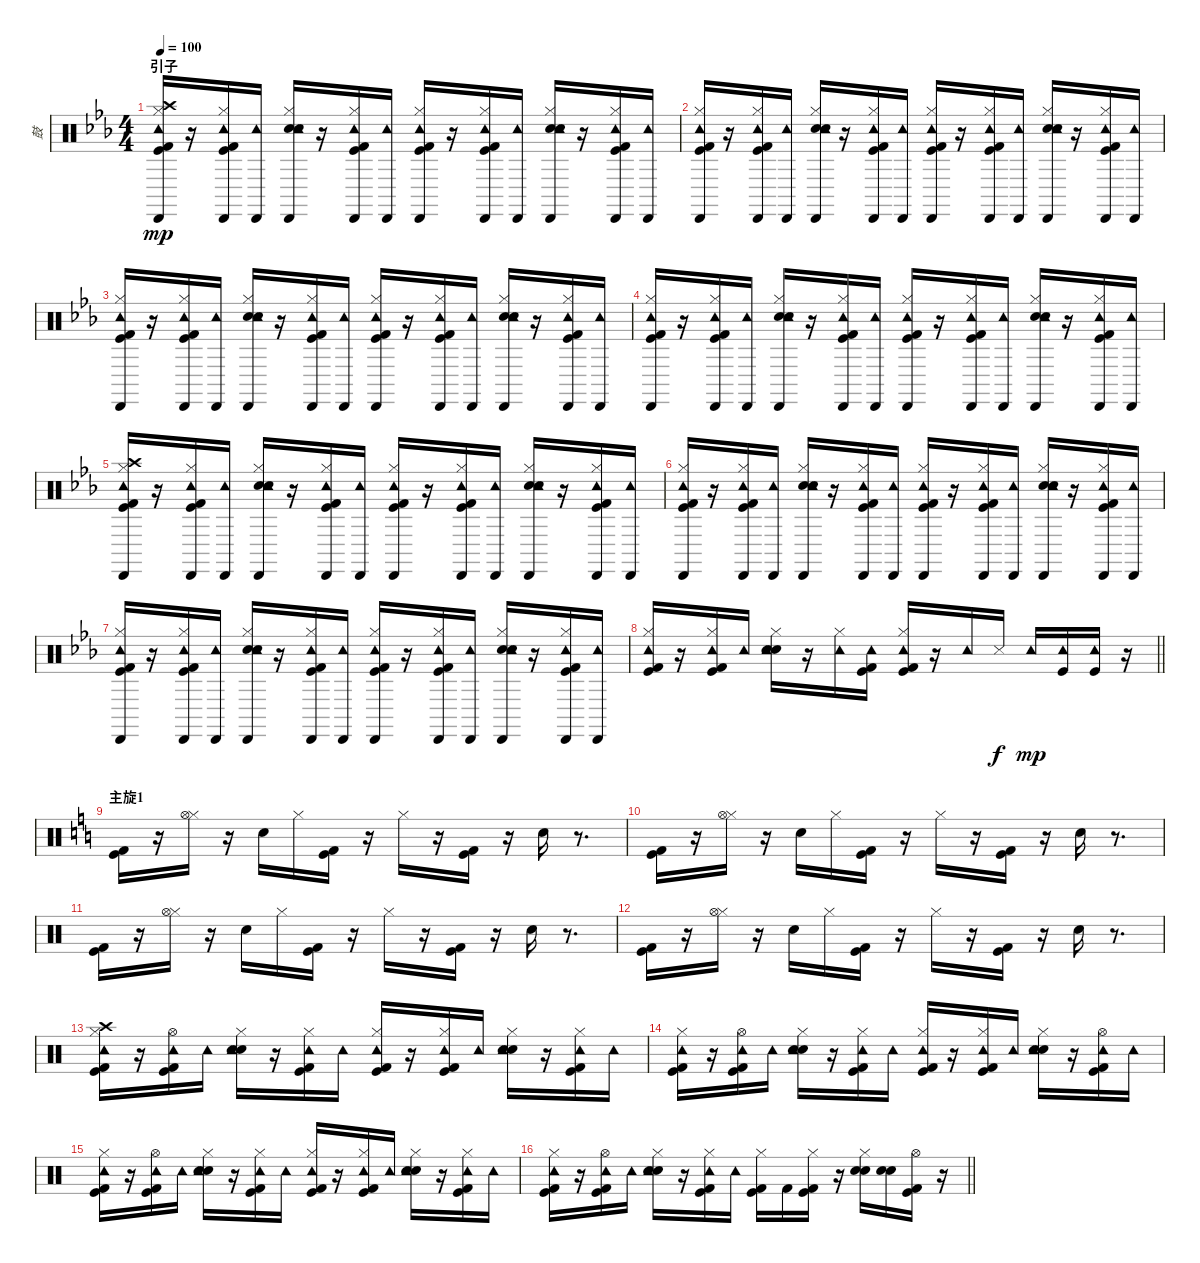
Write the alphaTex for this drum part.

\track ("鼓" "鼓") {instrument percussion}
\staff {score}
\articulation defaults
\ts (4 4)
\section ("" "引子")
\tempo 100
\clef neutral
\ks eb
("Kick (hit)" "Kick (hit) 2" "Hi-Hat (closed)" "Cabasa (hit)" "Crash high (hit)" "Tambourine (hit)").16{dy mp} r.16 ("Kick (hit)" "Kick (hit) 2" "Hi-Hat (closed)" "Cabasa (hit)" "Tambourine (hit)").16 ("Cabasa (hit)" "Tambourine (hit)").16 ("Electric Snare (hit)" "Hand Clap (hit)" "Hi-Hat (closed)" "Cabasa (hit)" "Tambourine (hit)").16 r.16 ("Kick (hit)" "Kick (hit) 2" "Cabasa (hit)" "Tambourine (hit)" "Hi-Hat (closed)").16 ("Cabasa (hit)" "Tambourine (hit)").16 ("Kick (hit)" "Kick (hit) 2" "Hi-Hat (closed)" "Cabasa (hit)" "Tambourine (hit)").16 r.16 ("Kick (hit)" "Kick (hit) 2" "Hi-Hat (closed)" "Cabasa (hit)" "Tambourine (hit)").16 ("Cabasa (hit)" "Tambourine (hit)").16 ("Electric Snare (hit)" "Hand Clap (hit)" "Hi-Hat (closed)" "Cabasa (hit)" "Tambourine (hit)").16 r.16 ("Kick (hit)" "Kick (hit) 2" "Cabasa (hit)" "Tambourine (hit)" "Hi-Hat (closed)").16 ("Cabasa (hit)" "Tambourine (hit)").16 |
("Kick (hit)" "Kick (hit) 2" "Hi-Hat (closed)" "Cabasa (hit)" "Tambourine (hit)").16 r.16 ("Kick (hit)" "Kick (hit) 2" "Hi-Hat (closed)" "Cabasa (hit)" "Tambourine (hit)").16 ("Cabasa (hit)" "Tambourine (hit)").16 ("Electric Snare (hit)" "Hand Clap (hit)" "Hi-Hat (closed)" "Cabasa (hit)" "Tambourine (hit)").16 r.16 ("Kick (hit)" "Kick (hit) 2" "Cabasa (hit)" "Tambourine (hit)" "Hi-Hat (closed)").16 ("Cabasa (hit)" "Tambourine (hit)").16 ("Kick (hit)" "Kick (hit) 2" "Hi-Hat (closed)" "Cabasa (hit)" "Tambourine (hit)").16 r.16 ("Kick (hit)" "Kick (hit) 2" "Hi-Hat (closed)" "Cabasa (hit)" "Tambourine (hit)").16 ("Cabasa (hit)" "Tambourine (hit)").16 ("Electric Snare (hit)" "Hand Clap (hit)" "Hi-Hat (closed)" "Cabasa (hit)" "Tambourine (hit)").16 r.16 ("Kick (hit)" "Kick (hit) 2" "Cabasa (hit)" "Tambourine (hit)" "Hi-Hat (closed)").16 ("Cabasa (hit)" "Tambourine (hit)").16 |
("Kick (hit)" "Kick (hit) 2" "Hi-Hat (closed)" "Cabasa (hit)" "Tambourine (hit)").16 r.16 ("Kick (hit)" "Kick (hit) 2" "Hi-Hat (closed)" "Cabasa (hit)" "Tambourine (hit)").16 ("Cabasa (hit)" "Tambourine (hit)").16 ("Electric Snare (hit)" "Hand Clap (hit)" "Hi-Hat (closed)" "Cabasa (hit)" "Tambourine (hit)").16 r.16 ("Kick (hit)" "Kick (hit) 2" "Cabasa (hit)" "Tambourine (hit)" "Hi-Hat (closed)").16 ("Cabasa (hit)" "Tambourine (hit)").16 ("Kick (hit)" "Kick (hit) 2" "Hi-Hat (closed)" "Cabasa (hit)" "Tambourine (hit)").16 r.16 ("Kick (hit)" "Kick (hit) 2" "Hi-Hat (closed)" "Cabasa (hit)" "Tambourine (hit)").16 ("Cabasa (hit)" "Tambourine (hit)").16 ("Electric Snare (hit)" "Hand Clap (hit)" "Hi-Hat (closed)" "Cabasa (hit)" "Tambourine (hit)").16 r.16 ("Kick (hit)" "Kick (hit) 2" "Cabasa (hit)" "Tambourine (hit)" "Hi-Hat (closed)").16 ("Cabasa (hit)" "Tambourine (hit)").16 |
("Kick (hit)" "Kick (hit) 2" "Hi-Hat (closed)" "Cabasa (hit)" "Tambourine (hit)").16 r.16 ("Kick (hit)" "Kick (hit) 2" "Hi-Hat (closed)" "Cabasa (hit)" "Tambourine (hit)").16 ("Cabasa (hit)" "Tambourine (hit)").16 ("Electric Snare (hit)" "Hand Clap (hit)" "Hi-Hat (closed)" "Cabasa (hit)" "Tambourine (hit)").16 r.16 ("Kick (hit)" "Kick (hit) 2" "Cabasa (hit)" "Tambourine (hit)" "Hi-Hat (closed)").16 ("Cabasa (hit)" "Tambourine (hit)").16 ("Kick (hit)" "Kick (hit) 2" "Hi-Hat (closed)" "Cabasa (hit)" "Tambourine (hit)").16 r.16 ("Kick (hit)" "Kick (hit) 2" "Hi-Hat (closed)" "Cabasa (hit)" "Tambourine (hit)").16 ("Cabasa (hit)" "Tambourine (hit)").16 ("Electric Snare (hit)" "Hand Clap (hit)" "Hi-Hat (closed)" "Cabasa (hit)" "Tambourine (hit)").16 r.16 ("Kick (hit)" "Kick (hit) 2" "Cabasa (hit)" "Tambourine (hit)" "Hi-Hat (closed)").16 ("Cabasa (hit)" "Tambourine (hit)").16 |
("Kick (hit)" "Kick (hit) 2" "Hi-Hat (closed)" "Cabasa (hit)" "Tambourine (hit)" "Crash high (hit)").16 r.16 ("Kick (hit)" "Kick (hit) 2" "Hi-Hat (closed)" "Cabasa (hit)" "Tambourine (hit)").16 ("Cabasa (hit)" "Tambourine (hit)").16 ("Electric Snare (hit)" "Hand Clap (hit)" "Hi-Hat (closed)" "Cabasa (hit)" "Tambourine (hit)").16 r.16 ("Kick (hit)" "Kick (hit) 2" "Cabasa (hit)" "Tambourine (hit)" "Hi-Hat (closed)").16 ("Cabasa (hit)" "Tambourine (hit)").16 ("Kick (hit)" "Kick (hit) 2" "Hi-Hat (closed)" "Cabasa (hit)" "Tambourine (hit)").16 r.16 ("Kick (hit)" "Kick (hit) 2" "Hi-Hat (closed)" "Cabasa (hit)" "Tambourine (hit)").16 ("Cabasa (hit)" "Tambourine (hit)").16 ("Electric Snare (hit)" "Hand Clap (hit)" "Hi-Hat (closed)" "Cabasa (hit)" "Tambourine (hit)").16 r.16 ("Kick (hit)" "Kick (hit) 2" "Cabasa (hit)" "Tambourine (hit)" "Hi-Hat (closed)").16 ("Cabasa (hit)" "Tambourine (hit)").16 |
("Kick (hit)" "Kick (hit) 2" "Hi-Hat (closed)" "Cabasa (hit)" "Tambourine (hit)").16 r.16 ("Kick (hit)" "Kick (hit) 2" "Hi-Hat (closed)" "Cabasa (hit)" "Tambourine (hit)").16 ("Cabasa (hit)" "Tambourine (hit)").16 ("Electric Snare (hit)" "Hand Clap (hit)" "Hi-Hat (closed)" "Cabasa (hit)" "Tambourine (hit)").16 r.16 ("Kick (hit)" "Kick (hit) 2" "Cabasa (hit)" "Tambourine (hit)" "Hi-Hat (closed)").16 ("Cabasa (hit)" "Tambourine (hit)").16 ("Kick (hit)" "Kick (hit) 2" "Hi-Hat (closed)" "Cabasa (hit)" "Tambourine (hit)").16 r.16 ("Kick (hit)" "Kick (hit) 2" "Hi-Hat (closed)" "Cabasa (hit)" "Tambourine (hit)").16 ("Cabasa (hit)" "Tambourine (hit)").16 ("Electric Snare (hit)" "Hand Clap (hit)" "Hi-Hat (closed)" "Cabasa (hit)" "Tambourine (hit)").16 r.16 ("Kick (hit)" "Kick (hit) 2" "Cabasa (hit)" "Tambourine (hit)" "Hi-Hat (closed)").16 ("Cabasa (hit)" "Tambourine (hit)").16 |
("Kick (hit)" "Kick (hit) 2" "Hi-Hat (closed)" "Cabasa (hit)" "Tambourine (hit)").16 r.16 ("Kick (hit)" "Kick (hit) 2" "Hi-Hat (closed)" "Cabasa (hit)" "Tambourine (hit)").16 ("Cabasa (hit)" "Tambourine (hit)").16 ("Electric Snare (hit)" "Hand Clap (hit)" "Hi-Hat (closed)" "Cabasa (hit)" "Tambourine (hit)").16 r.16 ("Kick (hit)" "Kick (hit) 2" "Cabasa (hit)" "Tambourine (hit)" "Hi-Hat (closed)").16 ("Cabasa (hit)" "Tambourine (hit)").16 ("Kick (hit)" "Kick (hit) 2" "Hi-Hat (closed)" "Cabasa (hit)" "Tambourine (hit)").16 r.16 ("Kick (hit)" "Kick (hit) 2" "Hi-Hat (closed)" "Cabasa (hit)" "Tambourine (hit)").16 ("Cabasa (hit)" "Tambourine (hit)").16 ("Electric Snare (hit)" "Hand Clap (hit)" "Hi-Hat (closed)" "Cabasa (hit)" "Tambourine (hit)").16 r.16 ("Kick (hit)" "Kick (hit) 2" "Cabasa (hit)" "Tambourine (hit)" "Hi-Hat (closed)").16 ("Cabasa (hit)" "Tambourine (hit)").16 |
\barLineRight lightlight
("Kick (hit)" "Kick (hit) 2" "Tambourine (hit)" "Hi-Hat (closed)").16 r.16 ("Kick (hit)" "Kick (hit) 2" "Tambourine (hit)" "Hi-Hat (closed)").16 "Tambourine (hit)".16 ("Hand Clap (hit)" "Electric Snare (hit)" "Tambourine (hit)" "Hi-Hat (closed)").16 r.16 ("Tambourine (hit)" "Hi-Hat (closed)").16 ("Kick (hit)" "Kick (hit) 2" "Tambourine (hit)").16 ("Kick (hit)" "Kick (hit) 2" "Tambourine (hit)" "Hi-Hat (closed)").16 r.16 "Tambourine (hit)".16 "Snare (side stick) 3".16{dy f} "Tambourine (hit)".16{dy mp} ("Tambourine (hit)" "Kick (hit)").16 ("Tambourine (hit)" "Kick (hit)").16 r.16 |
\section ("" "主旋1")
\ks c
("Kick (hit)" "Kick (hit) 2").16 r.16 ("Hi-Hat (closed)" "Hi-Hat (open)").16 r.16 "Electric Snare (hit)".16 "Hi-Hat (closed)".16 ("Kick (hit)" "Kick (hit) 2").16 r.16 "Hi-Hat (closed)".16 r.16 ("Kick (hit)" "Kick (hit) 2").16 r.16 "Electric Snare (hit)".16 r.8{d} |
("Kick (hit)" "Kick (hit) 2").16 r.16 ("Hi-Hat (closed)" "Hi-Hat (open)").16 r.16 "Electric Snare (hit)".16 "Hi-Hat (closed)".16 ("Kick (hit)" "Kick (hit) 2").16 r.16 "Hi-Hat (closed)".16 r.16 ("Kick (hit)" "Kick (hit) 2").16 r.16 "Electric Snare (hit)".16 r.8{d} |
("Kick (hit)" "Kick (hit) 2").16 r.16 ("Hi-Hat (closed)" "Hi-Hat (open)").16 r.16 "Electric Snare (hit)".16 "Hi-Hat (closed)".16 ("Kick (hit)" "Kick (hit) 2").16 r.16 "Hi-Hat (closed)".16 r.16 ("Kick (hit)" "Kick (hit) 2").16 r.16 "Electric Snare (hit)".16 r.8{d} |
("Kick (hit)" "Kick (hit) 2").16 r.16 ("Hi-Hat (closed)" "Hi-Hat (open)").16 r.16 "Electric Snare (hit)".16 "Hi-Hat (closed)".16 ("Kick (hit)" "Kick (hit) 2").16 r.16 "Hi-Hat (closed)".16 r.16 ("Kick (hit)" "Kick (hit) 2").16 r.16 "Electric Snare (hit)".16 r.8{d} |
("Kick (hit)" "Kick (hit) 2" "Hi-Hat (closed)" "Crash high (hit)" "Tambourine (hit)").16 r.16 ("Kick (hit)" "Kick (hit) 2" "Hi-Hat (open)" "Tambourine (hit)").16 "Tambourine (hit)".16 ("Hi-Hat (closed)" "Hand Clap (hit)" "Electric Snare (hit)" "Tambourine (hit)").16 r.16 ("Kick (hit)" "Kick (hit) 2" "Hi-Hat (closed)" "Tambourine (hit)").16 "Tambourine (hit)".16 ("Kick (hit)" "Kick (hit) 2" "Hi-Hat (closed)" "Tambourine (hit)").16 r.16 ("Kick (hit)" "Kick (hit) 2" "Hi-Hat (closed)" "Tambourine (hit)").16 "Tambourine (hit)".16 ("Hi-Hat (closed)" "Electric Snare (hit)" "Hand Clap (hit)" "Tambourine (hit)").16 r.16 ("Kick (hit)" "Kick (hit) 2" "Hi-Hat (closed)" "Tambourine (hit)").16 "Tambourine (hit)".16 |
("Kick (hit)" "Kick (hit) 2" "Hi-Hat (closed)" "Tambourine (hit)").16 r.16 ("Kick (hit)" "Kick (hit) 2" "Hi-Hat (open)" "Tambourine (hit)").16 "Tambourine (hit)".16 ("Hi-Hat (closed)" "Hand Clap (hit)" "Electric Snare (hit)" "Tambourine (hit)").16 r.16 ("Kick (hit)" "Kick (hit) 2" "Hi-Hat (closed)" "Tambourine (hit)").16 "Tambourine (hit)".16 ("Kick (hit)" "Kick (hit) 2" "Hi-Hat (closed)" "Tambourine (hit)").16 r.16 ("Kick (hit)" "Kick (hit) 2" "Hi-Hat (closed)" "Tambourine (hit)").16 "Tambourine (hit)".16 ("Hi-Hat (closed)" "Electric Snare (hit)" "Hand Clap (hit)" "Tambourine (hit)").16 r.16 ("Kick (hit)" "Kick (hit) 2" "Tambourine (hit)" "Hi-Hat (open)").16 "Tambourine (hit)".16 |
("Kick (hit)" "Kick (hit) 2" "Hi-Hat (closed)" "Tambourine (hit)").16 r.16 ("Kick (hit)" "Kick (hit) 2" "Hi-Hat (open)" "Tambourine (hit)").16 "Tambourine (hit)".16 ("Hi-Hat (closed)" "Hand Clap (hit)" "Electric Snare (hit)" "Tambourine (hit)").16 r.16 ("Kick (hit)" "Kick (hit) 2" "Hi-Hat (closed)" "Tambourine (hit)").16 "Tambourine (hit)".16 ("Kick (hit)" "Kick (hit) 2" "Hi-Hat (closed)" "Tambourine (hit)").16 r.16 ("Kick (hit)" "Kick (hit) 2" "Hi-Hat (closed)" "Tambourine (hit)").16 "Tambourine (hit)".16 ("Hi-Hat (closed)" "Electric Snare (hit)" "Hand Clap (hit)" "Tambourine (hit)").16 r.16 ("Kick (hit)" "Kick (hit) 2" "Hi-Hat (closed)" "Tambourine (hit)").16 "Tambourine (hit)".16 |
\barLineRight lightlight
("Kick (hit)" "Kick (hit) 2" "Hi-Hat (closed)" "Tambourine (hit)").16 r.16 ("Kick (hit)" "Kick (hit) 2" "Hi-Hat (open)" "Tambourine (hit)").16 "Tambourine (hit)".16 ("Hi-Hat (closed)" "Hand Clap (hit)" "Electric Snare (hit)" "Tambourine (hit)").16 r.16 ("Kick (hit)" "Kick (hit) 2" "Hi-Hat (closed)" "Tambourine (hit)").16 "Tambourine (hit)".16 ("Kick (hit)" "Kick (hit) 2" "Hi-Hat (closed)").16 "Kick (hit) 2".16 ("Kick (hit)" "Kick (hit) 2" "Hi-Hat (closed)").16 r.16 ("Electric Snare (hit)" "Hand Clap (hit)" "Hi-Hat (closed)").16 ("Electric Snare (hit)" "Hand Clap (hit)").16 ("Kick (hit)" "Kick (hit) 2" "Hi-Hat (open)").16 r.16
